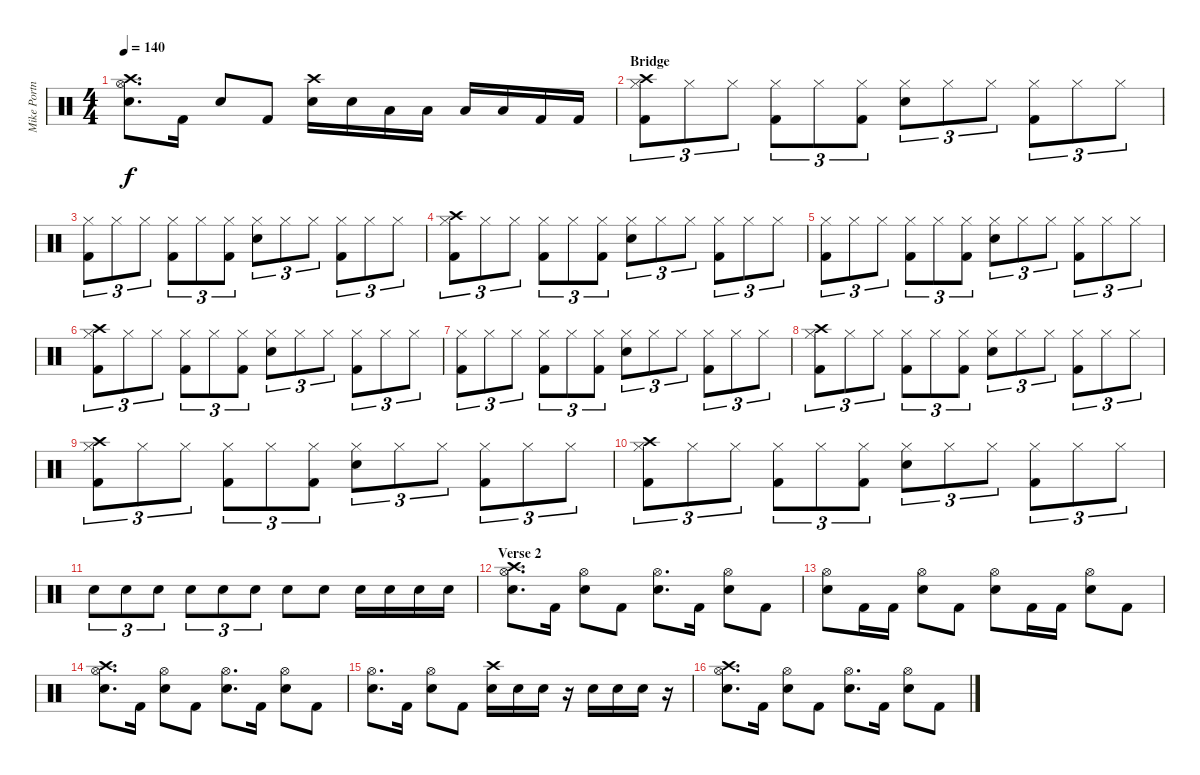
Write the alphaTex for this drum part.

\track ("Mike Portnoy Drums/Percussion" "Mike Portn") {instrument percussion}
\staff {score}
\articulation defaults
\ts (4 4)
\tempo 140
\clef neutral
\ks c
("Snare (hit) 2" "Crash high (hit)" "Hi-Hat (open)").8{d dy f} "Kick (hit) 2".16 "Snare (hit) 2".8 "Kick (hit) 2".8 ("Snare (hit) 2" "Crash high (hit)").16 "Snare (hit) 2".16 "Low Tom (hit)".16 "Low Tom (hit)".16 "Low Floor Tom (hit)".16 "Low Floor Tom (hit)".16 "Kick (hit) 2".16 "Kick (hit) 2".16 |
\section ("" "Bridge")
("Crash high (hit)" "Hi-Hat (closed)" "Kick (hit) 2").8{tu (3 2)} "Hi-Hat (closed)".8{tu (3 2)} "Hi-Hat (closed)".8{tu (3 2)} ("Hi-Hat (closed)" "Kick (hit) 2").8{tu (3 2)} "Hi-Hat (closed)".8{tu (3 2)} ("Hi-Hat (closed)" "Kick (hit) 2").8{tu (3 2)} ("Hi-Hat (closed)" "Snare (hit) 2").8{tu (3 2)} "Hi-Hat (closed)".8{tu (3 2)} "Hi-Hat (closed)".8{tu (3 2)} ("Hi-Hat (closed)" "Kick (hit) 2").8{tu (3 2)} "Hi-Hat (closed)".8{tu (3 2)} "Hi-Hat (closed)".8{tu (3 2)} |
("Hi-Hat (closed)" "Kick (hit) 2").8{tu (3 2)} "Hi-Hat (closed)".8{tu (3 2)} "Hi-Hat (closed)".8{tu (3 2)} ("Hi-Hat (closed)" "Kick (hit) 2").8{tu (3 2)} "Hi-Hat (closed)".8{tu (3 2)} ("Hi-Hat (closed)" "Kick (hit) 2").8{tu (3 2)} ("Hi-Hat (closed)" "Snare (hit) 2").8{tu (3 2)} "Hi-Hat (closed)".8{tu (3 2)} "Hi-Hat (closed)".8{tu (3 2)} ("Hi-Hat (closed)" "Kick (hit) 2").8{tu (3 2)} "Hi-Hat (closed)".8{tu (3 2)} "Hi-Hat (closed)".8{tu (3 2)} |
("Crash high (hit)" "Hi-Hat (closed)" "Kick (hit) 2").8{tu (3 2)} "Hi-Hat (closed)".8{tu (3 2)} "Hi-Hat (closed)".8{tu (3 2)} ("Hi-Hat (closed)" "Kick (hit) 2").8{tu (3 2)} "Hi-Hat (closed)".8{tu (3 2)} ("Hi-Hat (closed)" "Kick (hit) 2").8{tu (3 2)} ("Hi-Hat (closed)" "Snare (hit) 2").8{tu (3 2)} "Hi-Hat (closed)".8{tu (3 2)} "Hi-Hat (closed)".8{tu (3 2)} ("Hi-Hat (closed)" "Kick (hit) 2").8{tu (3 2)} "Hi-Hat (closed)".8{tu (3 2)} "Hi-Hat (closed)".8{tu (3 2)} |
("Hi-Hat (closed)" "Kick (hit) 2").8{tu (3 2)} "Hi-Hat (closed)".8{tu (3 2)} "Hi-Hat (closed)".8{tu (3 2)} ("Hi-Hat (closed)" "Kick (hit) 2").8{tu (3 2)} "Hi-Hat (closed)".8{tu (3 2)} ("Hi-Hat (closed)" "Kick (hit) 2").8{tu (3 2)} ("Hi-Hat (closed)" "Snare (hit) 2").8{tu (3 2)} "Hi-Hat (closed)".8{tu (3 2)} "Hi-Hat (closed)".8{tu (3 2)} ("Hi-Hat (closed)" "Kick (hit) 2").8{tu (3 2)} "Hi-Hat (closed)".8{tu (3 2)} "Hi-Hat (closed)".8{tu (3 2)} |
("Crash high (hit)" "Hi-Hat (closed)" "Kick (hit) 2").8{tu (3 2)} "Hi-Hat (closed)".8{tu (3 2)} "Hi-Hat (closed)".8{tu (3 2)} ("Hi-Hat (closed)" "Kick (hit) 2").8{tu (3 2)} "Hi-Hat (closed)".8{tu (3 2)} ("Hi-Hat (closed)" "Kick (hit) 2").8{tu (3 2)} ("Hi-Hat (closed)" "Snare (hit) 2").8{tu (3 2)} "Hi-Hat (closed)".8{tu (3 2)} "Hi-Hat (closed)".8{tu (3 2)} ("Hi-Hat (closed)" "Kick (hit) 2").8{tu (3 2)} "Hi-Hat (closed)".8{tu (3 2)} "Hi-Hat (closed)".8{tu (3 2)} |
("Hi-Hat (closed)" "Kick (hit) 2").8{tu (3 2)} "Hi-Hat (closed)".8{tu (3 2)} "Hi-Hat (closed)".8{tu (3 2)} ("Hi-Hat (closed)" "Kick (hit) 2").8{tu (3 2)} "Hi-Hat (closed)".8{tu (3 2)} ("Hi-Hat (closed)" "Kick (hit) 2").8{tu (3 2)} ("Hi-Hat (closed)" "Snare (hit) 2").8{tu (3 2)} "Hi-Hat (closed)".8{tu (3 2)} "Hi-Hat (closed)".8{tu (3 2)} ("Hi-Hat (closed)" "Kick (hit) 2").8{tu (3 2)} "Hi-Hat (closed)".8{tu (3 2)} "Hi-Hat (closed)".8{tu (3 2)} |
("Crash high (hit)" "Hi-Hat (closed)" "Kick (hit) 2").8{tu (3 2)} "Hi-Hat (closed)".8{tu (3 2)} "Hi-Hat (closed)".8{tu (3 2)} ("Hi-Hat (closed)" "Kick (hit) 2").8{tu (3 2)} "Hi-Hat (closed)".8{tu (3 2)} ("Hi-Hat (closed)" "Kick (hit) 2").8{tu (3 2)} ("Hi-Hat (closed)" "Snare (hit) 2").8{tu (3 2)} "Hi-Hat (closed)".8{tu (3 2)} "Hi-Hat (closed)".8{tu (3 2)} ("Hi-Hat (closed)" "Kick (hit) 2").8{tu (3 2)} "Hi-Hat (closed)".8{tu (3 2)} "Hi-Hat (closed)".8{tu (3 2)} |
("Crash high (hit)" "Hi-Hat (closed)" "Kick (hit) 2").8{tu (3 2)} "Hi-Hat (closed)".8{tu (3 2)} "Hi-Hat (closed)".8{tu (3 2)} ("Hi-Hat (closed)" "Kick (hit) 2").8{tu (3 2)} "Hi-Hat (closed)".8{tu (3 2)} ("Hi-Hat (closed)" "Kick (hit) 2").8{tu (3 2)} ("Hi-Hat (closed)" "Snare (hit) 2").8{tu (3 2)} "Hi-Hat (closed)".8{tu (3 2)} "Hi-Hat (closed)".8{tu (3 2)} ("Hi-Hat (closed)" "Kick (hit) 2").8{tu (3 2)} "Hi-Hat (closed)".8{tu (3 2)} "Hi-Hat (closed)".8{tu (3 2)} |
("Crash high (hit)" "Hi-Hat (closed)" "Kick (hit) 2").8{tu (3 2)} "Hi-Hat (closed)".8{tu (3 2)} "Hi-Hat (closed)".8{tu (3 2)} ("Hi-Hat (closed)" "Kick (hit) 2").8{tu (3 2)} "Hi-Hat (closed)".8{tu (3 2)} ("Hi-Hat (closed)" "Kick (hit) 2").8{tu (3 2)} ("Hi-Hat (closed)" "Snare (hit) 2").8{tu (3 2)} "Hi-Hat (closed)".8{tu (3 2)} "Hi-Hat (closed)".8{tu (3 2)} ("Hi-Hat (closed)" "Kick (hit) 2").8{tu (3 2)} "Hi-Hat (closed)".8{tu (3 2)} "Hi-Hat (closed)".8{tu (3 2)} |
"Snare (hit) 2".8{tu (3 2)} "Snare (hit) 2".8{tu (3 2)} "Snare (hit) 2".8{tu (3 2)} "Snare (hit) 2".8{tu (3 2)} "Snare (hit) 2".8{tu (3 2)} "Snare (hit) 2".8{tu (3 2)} "Snare (hit) 2".8 "Snare (hit) 2".8 "Snare (hit) 2".16 "Snare (hit) 2".16 "Snare (hit) 2".16 "Snare (hit) 2".16 |
\section ("" "Verse 2")
("Snare (hit) 2" "Crash high (hit)" "Hi-Hat (open)").8{d} "Kick (hit) 2".16 ("Snare (hit) 2" "Hi-Hat (open)").8 "Kick (hit) 2".8 ("Snare (hit) 2" "Hi-Hat (open)").8{d} "Kick (hit) 2".16 ("Snare (hit) 2" "Hi-Hat (open)").8 "Kick (hit) 2".8 |
("Snare (hit) 2" "Hi-Hat (open)").8 "Kick (hit) 2".16 "Kick (hit) 2".16 ("Snare (hit) 2" "Hi-Hat (open)").8 "Kick (hit) 2".8 ("Snare (hit) 2" "Hi-Hat (open)").8 "Kick (hit) 2".16 "Kick (hit) 2".16 ("Snare (hit) 2" "Hi-Hat (open)").8 "Kick (hit) 2".8 |
("Snare (hit) 2" "Crash high (hit)" "Hi-Hat (open)").8{d} "Kick (hit) 2".16 ("Snare (hit) 2" "Hi-Hat (open)").8 "Kick (hit) 2".8 ("Snare (hit) 2" "Hi-Hat (open)").8{d} "Kick (hit) 2".16 ("Snare (hit) 2" "Hi-Hat (open)").8 "Kick (hit) 2".8 |
("Snare (hit) 2" "Hi-Hat (open)").8{d} "Kick (hit) 2".16 ("Snare (hit) 2" "Hi-Hat (open)").8 "Kick (hit) 2".8 ("Crash high (hit)" "Snare (hit) 2").16 "Snare (hit) 2".16 "Snare (hit) 2".16 r.16 "Snare (hit) 2".16 "Snare (hit) 2".16 "Snare (hit) 2".16 r.16 |
("Snare (hit) 2" "Crash high (hit)" "Hi-Hat (open)").8{d} "Kick (hit) 2".16 ("Snare (hit) 2" "Hi-Hat (open)").8 "Kick (hit) 2".8 ("Snare (hit) 2" "Hi-Hat (open)").8{d} "Kick (hit) 2".16 ("Snare (hit) 2" "Hi-Hat (open)").8 "Kick (hit) 2".8
